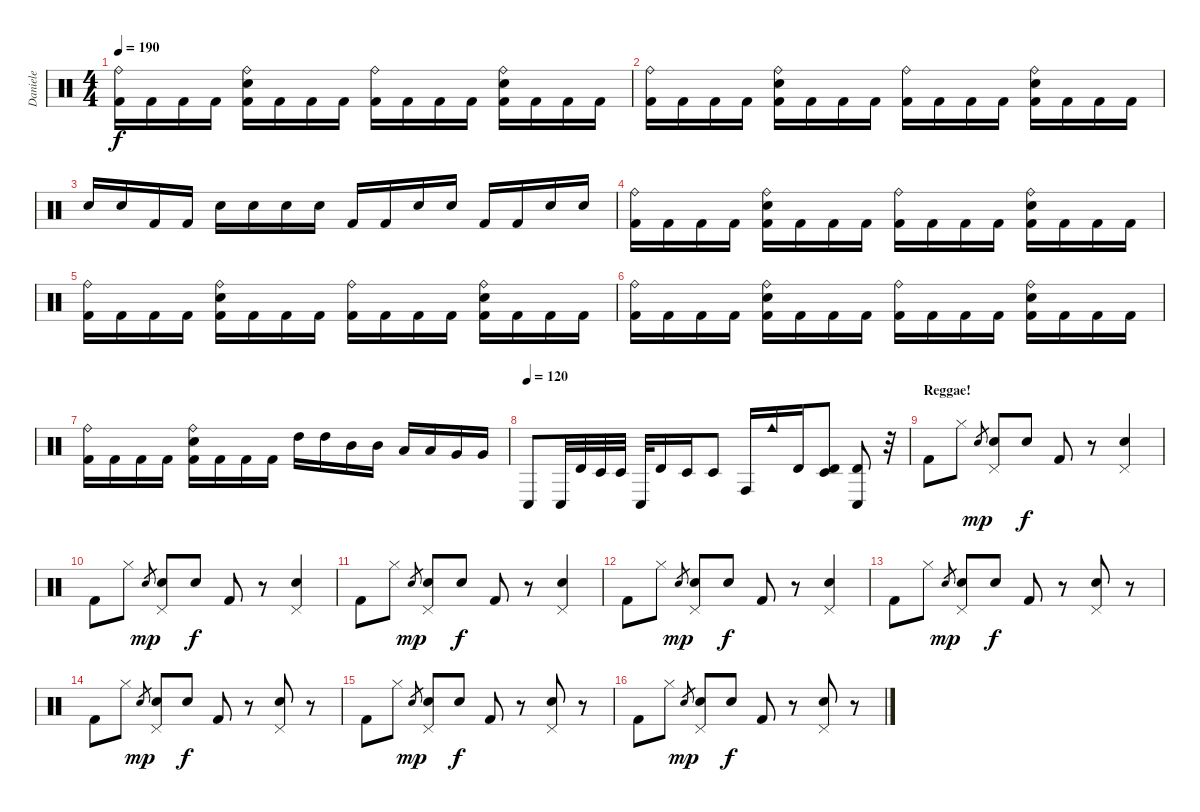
\track ("Daniele" "Daniele") {instrument percussion}
\staff {score}
\articulation defaults
\ts (4 4)
\tempo 190
\clef neutral
\ks c
("Ride (bell)" "Kick (hit) 2").16{dy f} "Kick (hit) 2".16 "Kick (hit) 2".16 "Kick (hit) 2".16 ("Ride (bell)" "Electric Snare (hit)" "Kick (hit) 2").16 "Kick (hit) 2".16 "Kick (hit) 2".16 "Kick (hit) 2".16 ("Ride (bell)" "Kick (hit) 2").16 "Kick (hit) 2".16 "Kick (hit) 2".16 "Kick (hit) 2".16 ("Ride (bell)" "Electric Snare (hit)" "Kick (hit) 2").16 "Kick (hit) 2".16 "Kick (hit) 2".16 "Kick (hit) 2".16 |
("Ride (bell)" "Kick (hit) 2").16 "Kick (hit) 2".16 "Kick (hit) 2".16 "Kick (hit) 2".16 ("Ride (bell)" "Electric Snare (hit)" "Kick (hit) 2").16 "Kick (hit) 2".16 "Kick (hit) 2".16 "Kick (hit) 2".16 ("Ride (bell)" "Kick (hit) 2").16 "Kick (hit) 2".16 "Kick (hit) 2".16 "Kick (hit) 2".16 ("Ride (bell)" "Electric Snare (hit)" "Kick (hit) 2").16 "Kick (hit) 2".16 "Kick (hit) 2".16 "Kick (hit) 2".16 |
"Electric Snare (hit)".16 "Electric Snare (hit)".16 "Kick (hit) 2".16 "Kick (hit) 2".16 "Electric Snare (hit)".16 "Electric Snare (hit)".16 "Electric Snare (hit)".16 "Electric Snare (hit)".16 "Kick (hit) 2".16 "Kick (hit) 2".16 "Electric Snare (hit)".16 "Electric Snare (hit)".16 "Kick (hit) 2".16 "Kick (hit) 2".16 "Electric Snare (hit)".16 "Electric Snare (hit)".16 |
("Ride (bell)" "Kick (hit) 2").16 "Kick (hit) 2".16 "Kick (hit) 2".16 "Kick (hit) 2".16 ("Ride (bell)" "Electric Snare (hit)" "Kick (hit) 2").16 "Kick (hit) 2".16 "Kick (hit) 2".16 "Kick (hit) 2".16 ("Ride (bell)" "Kick (hit) 2").16 "Kick (hit) 2".16 "Kick (hit) 2".16 "Kick (hit) 2".16 ("Ride (bell)" "Electric Snare (hit)" "Kick (hit) 2").16 "Kick (hit) 2".16 "Kick (hit) 2".16 "Kick (hit) 2".16 |
("Ride (bell)" "Kick (hit) 2").16 "Kick (hit) 2".16 "Kick (hit) 2".16 "Kick (hit) 2".16 ("Ride (bell)" "Electric Snare (hit)" "Kick (hit) 2").16 "Kick (hit) 2".16 "Kick (hit) 2".16 "Kick (hit) 2".16 ("Ride (bell)" "Kick (hit) 2").16 "Kick (hit) 2".16 "Kick (hit) 2".16 "Kick (hit) 2".16 ("Ride (bell)" "Electric Snare (hit)" "Kick (hit) 2").16 "Kick (hit) 2".16 "Kick (hit) 2".16 "Kick (hit) 2".16 |
("Ride (bell)" "Kick (hit) 2").16 "Kick (hit) 2".16 "Kick (hit) 2".16 "Kick (hit) 2".16 ("Ride (bell)" "Electric Snare (hit)" "Kick (hit) 2").16 "Kick (hit) 2".16 "Kick (hit) 2".16 "Kick (hit) 2".16 ("Ride (bell)" "Kick (hit) 2").16 "Kick (hit) 2".16 "Kick (hit) 2".16 "Kick (hit) 2".16 ("Ride (bell)" "Electric Snare (hit)" "Kick (hit) 2").16 "Kick (hit) 2".16 "Kick (hit) 2".16 "Kick (hit) 2".16 |
("Ride (bell)" "Kick (hit) 2").16 "Kick (hit) 2".16 "Kick (hit) 2".16 "Kick (hit) 2".16 ("Ride (bell)" "Electric Snare (hit)" "Kick (hit) 2").16 "Kick (hit) 2".16 "Kick (hit) 2".16 "Kick (hit) 2".16 "High Tom (hit)".16 "High Tom (hit)".16 "Mid Tom (hit)".16 "Mid Tom (hit)".16 "Low Tom (hit)".16 "Low Tom (hit)".16 "Very Low Tom (hit)".16 "Very Low Tom (hit)".16 |
\tempo (120)
"Conga low (hit)".8 "Conga low (hit)".32 "Timbale high (hit)".32 "Timbale low (hit)".32 "Timbale low (hit)".32 "Conga low (hit)".32 "Timbale high (hit)".16 "Timbale low (hit)".16 "Timbale low (hit)".8 "Conga high (hit)".16 "Cowbell medium (hit)".16 "Timbale high (hit)".16 ("Timbale low (hit)" "Timbale high (hit)").8 ("Timbale high (hit)" "Conga low (hit)").8 r.32 |
\section ("" "Reggae!")
"Kick (hit) 2".8 "Hi-Hat (closed)".8 "Electric Snare (hit)".8{gr dy mp} ("Electric Snare (hit)" "Pedal Hi-Hat (hit)").8 "Electric Snare (hit)".8{dy f} "Kick (hit) 2".8 r.8 ("Electric Snare (hit)" "Pedal Hi-Hat (hit)").4 |
"Kick (hit) 2".8 "Hi-Hat (closed)".8 "Electric Snare (hit)".8{gr dy mp} ("Electric Snare (hit)" "Pedal Hi-Hat (hit)").8 "Electric Snare (hit)".8{dy f} "Kick (hit) 2".8 r.8 ("Electric Snare (hit)" "Pedal Hi-Hat (hit)").4 |
"Kick (hit) 2".8 "Hi-Hat (closed)".8 "Electric Snare (hit)".8{gr dy mp} ("Electric Snare (hit)" "Pedal Hi-Hat (hit)").8 "Electric Snare (hit)".8{dy f} "Kick (hit) 2".8 r.8 ("Electric Snare (hit)" "Pedal Hi-Hat (hit)").4 |
"Kick (hit) 2".8 "Hi-Hat (closed)".8 "Electric Snare (hit)".8{gr dy mp} ("Electric Snare (hit)" "Pedal Hi-Hat (hit)").8 "Electric Snare (hit)".8{dy f} "Kick (hit) 2".8 r.8 ("Electric Snare (hit)" "Pedal Hi-Hat (hit)").4 |
"Kick (hit) 2".8 "Hi-Hat (closed)".8 "Electric Snare (hit)".8{gr dy mp} ("Electric Snare (hit)" "Pedal Hi-Hat (hit)").8 "Electric Snare (hit)".8{dy f} "Kick (hit) 2".8 r.8 ("Electric Snare (hit)" "Pedal Hi-Hat (hit)").8 r.8 |
"Kick (hit) 2".8 "Hi-Hat (closed)".8 "Electric Snare (hit)".8{gr dy mp} ("Electric Snare (hit)" "Pedal Hi-Hat (hit)").8 "Electric Snare (hit)".8{dy f} "Kick (hit) 2".8 r.8 ("Electric Snare (hit)" "Pedal Hi-Hat (hit)").8 r.8 |
"Kick (hit) 2".8 "Hi-Hat (closed)".8 "Electric Snare (hit)".8{gr dy mp} ("Electric Snare (hit)" "Pedal Hi-Hat (hit)").8 "Electric Snare (hit)".8{dy f} "Kick (hit) 2".8 r.8 ("Electric Snare (hit)" "Pedal Hi-Hat (hit)").8 r.8 |
"Kick (hit) 2".8 "Hi-Hat (closed)".8 "Electric Snare (hit)".8{gr dy mp} ("Electric Snare (hit)" "Pedal Hi-Hat (hit)").8 "Electric Snare (hit)".8{dy f} "Kick (hit) 2".8 r.8 ("Electric Snare (hit)" "Pedal Hi-Hat (hit)").8 r.8
